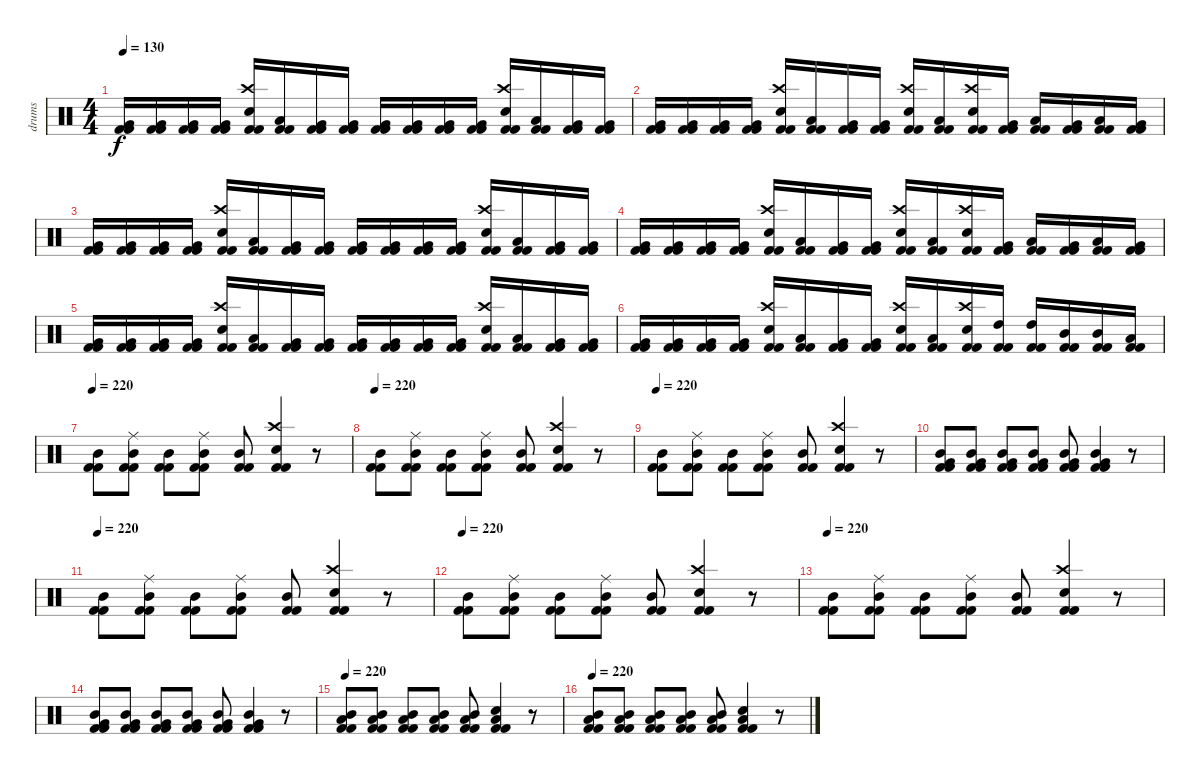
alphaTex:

\track ("drums" "drums") {instrument percussion}
\staff {score}
\articulation defaults
\ts (4 4)
\tempo 130
\clef neutral
\ks c
("Very Low Tom (hit)" "Kick (hit) 2" "Kick (hit) 2").16{dy f} ("Very Low Tom (hit)" "Kick (hit) 2" "Kick (hit) 2").16 ("Very Low Tom (hit)" "Kick (hit) 2" "Kick (hit) 2").16 ("Very Low Tom (hit)" "Kick (hit) 2" "Kick (hit) 2").16 ("Crash high (hit)" "Electric Snare (hit)" "Kick (hit) 2" "Kick (hit) 2").16 ("Low Tom (hit)" "Kick (hit) 2" "Kick (hit) 2").16 ("Very Low Tom (hit)" "Kick (hit) 2" "Kick (hit) 2").16 ("Very Low Tom (hit)" "Kick (hit) 2" "Kick (hit) 2").16 ("Very Low Tom (hit)" "Kick (hit) 2" "Kick (hit) 2").16 ("Very Low Tom (hit)" "Kick (hit) 2" "Kick (hit) 2").16 ("Very Low Tom (hit)" "Kick (hit) 2" "Kick (hit) 2").16 ("Very Low Tom (hit)" "Kick (hit) 2" "Kick (hit) 2").16 ("Crash high (hit)" "Electric Snare (hit)" "Kick (hit) 2" "Kick (hit) 2").16 ("Low Tom (hit)" "Kick (hit) 2" "Kick (hit) 2").16 ("Very Low Tom (hit)" "Kick (hit) 2" "Kick (hit) 2").16 ("Very Low Tom (hit)" "Kick (hit) 2" "Kick (hit) 2").16 |
("Very Low Tom (hit)" "Kick (hit) 2" "Kick (hit) 2").16 ("Very Low Tom (hit)" "Kick (hit) 2" "Kick (hit) 2").16 ("Very Low Tom (hit)" "Kick (hit) 2" "Kick (hit) 2").16 ("Very Low Tom (hit)" "Kick (hit) 2" "Kick (hit) 2").16 ("Crash high (hit)" "Electric Snare (hit)" "Kick (hit) 2" "Kick (hit) 2").16 ("Low Tom (hit)" "Kick (hit) 2" "Kick (hit) 2").16 ("Very Low Tom (hit)" "Kick (hit) 2" "Kick (hit) 2").16 ("Very Low Tom (hit)" "Kick (hit) 2" "Kick (hit) 2").16 ("Crash high (hit)" "Electric Snare (hit)" "Kick (hit) 2" "Kick (hit) 2").16 ("Low Tom (hit)" "Kick (hit) 2" "Kick (hit) 2").16 ("Crash high (hit)" "Electric Snare (hit)" "Kick (hit) 2" "Kick (hit) 2").16 ("Very Low Tom (hit)" "Kick (hit) 2" "Kick (hit) 2").16 ("Low Tom (hit)" "Kick (hit) 2" "Kick (hit) 2").16 ("Very Low Tom (hit)" "Kick (hit) 2" "Kick (hit) 2").16 ("Low Tom (hit)" "Kick (hit) 2" "Kick (hit) 2").16 ("Very Low Tom (hit)" "Kick (hit) 2" "Kick (hit) 2").16 |
("Very Low Tom (hit)" "Kick (hit) 2" "Kick (hit) 2").16 ("Very Low Tom (hit)" "Kick (hit) 2" "Kick (hit) 2").16 ("Very Low Tom (hit)" "Kick (hit) 2" "Kick (hit) 2").16 ("Very Low Tom (hit)" "Kick (hit) 2" "Kick (hit) 2").16 ("Crash high (hit)" "Electric Snare (hit)" "Kick (hit) 2" "Kick (hit) 2").16 ("Low Tom (hit)" "Kick (hit) 2" "Kick (hit) 2").16 ("Very Low Tom (hit)" "Kick (hit) 2" "Kick (hit) 2").16 ("Very Low Tom (hit)" "Kick (hit) 2" "Kick (hit) 2").16 ("Very Low Tom (hit)" "Kick (hit) 2" "Kick (hit) 2").16 ("Very Low Tom (hit)" "Kick (hit) 2" "Kick (hit) 2").16 ("Very Low Tom (hit)" "Kick (hit) 2" "Kick (hit) 2").16 ("Very Low Tom (hit)" "Kick (hit) 2" "Kick (hit) 2").16 ("Crash high (hit)" "Electric Snare (hit)" "Kick (hit) 2" "Kick (hit) 2").16 ("Low Tom (hit)" "Kick (hit) 2" "Kick (hit) 2").16 ("Very Low Tom (hit)" "Kick (hit) 2" "Kick (hit) 2").16 ("Very Low Tom (hit)" "Kick (hit) 2" "Kick (hit) 2").16 |
("Very Low Tom (hit)" "Kick (hit) 2" "Kick (hit) 2").16 ("Very Low Tom (hit)" "Kick (hit) 2" "Kick (hit) 2").16 ("Very Low Tom (hit)" "Kick (hit) 2" "Kick (hit) 2").16 ("Very Low Tom (hit)" "Kick (hit) 2" "Kick (hit) 2").16 ("Crash high (hit)" "Electric Snare (hit)" "Kick (hit) 2" "Kick (hit) 2").16 ("Low Tom (hit)" "Kick (hit) 2" "Kick (hit) 2").16 ("Very Low Tom (hit)" "Kick (hit) 2" "Kick (hit) 2").16 ("Very Low Tom (hit)" "Kick (hit) 2" "Kick (hit) 2").16 ("Crash high (hit)" "Electric Snare (hit)" "Kick (hit) 2" "Kick (hit) 2").16 ("Low Tom (hit)" "Kick (hit) 2" "Kick (hit) 2").16 ("Crash high (hit)" "Electric Snare (hit)" "Kick (hit) 2" "Kick (hit) 2").16 ("Very Low Tom (hit)" "Kick (hit) 2" "Kick (hit) 2").16 ("Low Tom (hit)" "Kick (hit) 2" "Kick (hit) 2").16 ("Very Low Tom (hit)" "Kick (hit) 2" "Kick (hit) 2").16 ("Low Tom (hit)" "Kick (hit) 2" "Kick (hit) 2").16 ("Very Low Tom (hit)" "Kick (hit) 2" "Kick (hit) 2").16 |
("Very Low Tom (hit)" "Kick (hit) 2" "Kick (hit) 2").16 ("Very Low Tom (hit)" "Kick (hit) 2" "Kick (hit) 2").16 ("Very Low Tom (hit)" "Kick (hit) 2" "Kick (hit) 2").16 ("Very Low Tom (hit)" "Kick (hit) 2" "Kick (hit) 2").16 ("Crash high (hit)" "Electric Snare (hit)" "Kick (hit) 2" "Kick (hit) 2").16 ("Low Tom (hit)" "Kick (hit) 2" "Kick (hit) 2").16 ("Very Low Tom (hit)" "Kick (hit) 2" "Kick (hit) 2").16 ("Very Low Tom (hit)" "Kick (hit) 2" "Kick (hit) 2").16 ("Very Low Tom (hit)" "Kick (hit) 2" "Kick (hit) 2").16 ("Very Low Tom (hit)" "Kick (hit) 2" "Kick (hit) 2").16 ("Very Low Tom (hit)" "Kick (hit) 2" "Kick (hit) 2").16 ("Very Low Tom (hit)" "Kick (hit) 2" "Kick (hit) 2").16 ("Crash high (hit)" "Electric Snare (hit)" "Kick (hit) 2" "Kick (hit) 2").16 ("Low Tom (hit)" "Kick (hit) 2" "Kick (hit) 2").16 ("Very Low Tom (hit)" "Kick (hit) 2" "Kick (hit) 2").16 ("Very Low Tom (hit)" "Kick (hit) 2" "Kick (hit) 2").16 |
("Very Low Tom (hit)" "Kick (hit) 2" "Kick (hit) 2").16 ("Very Low Tom (hit)" "Kick (hit) 2" "Kick (hit) 2").16 ("Very Low Tom (hit)" "Kick (hit) 2" "Kick (hit) 2").16 ("Very Low Tom (hit)" "Kick (hit) 2" "Kick (hit) 2").16 ("Crash high (hit)" "Electric Snare (hit)" "Kick (hit) 2" "Kick (hit) 2").16 ("Low Tom (hit)" "Kick (hit) 2" "Kick (hit) 2").16 ("Very Low Tom (hit)" "Kick (hit) 2" "Kick (hit) 2").16 ("Very Low Tom (hit)" "Kick (hit) 2" "Kick (hit) 2").16 ("Crash high (hit)" "Electric Snare (hit)" "Kick (hit) 2" "Kick (hit) 2").16 ("Low Tom (hit)" "Kick (hit) 2" "Kick (hit) 2").16 ("Crash high (hit)" "Electric Snare (hit)" "Kick (hit) 2" "Kick (hit) 2").16 ("High Tom (hit)" "Kick (hit) 2" "Kick (hit) 2").16 ("High Tom (hit)" "Kick (hit) 2" "Kick (hit) 2").16 ("Mid Tom (hit)" "Kick (hit) 2" "Kick (hit) 2").16 ("Mid Tom (hit)" "Kick (hit) 2" "Kick (hit) 2").16 ("Low Tom (hit)" "Kick (hit) 2" "Kick (hit) 2").16 |
\tempo 220
("Mid Tom (hit)" "Kick (hit) 2" "Kick (hit) 2").8 ("Ride (middle)" "Mid Tom (hit)" "Kick (hit) 2" "Kick (hit) 2").8 ("Mid Tom (hit)" "Kick (hit) 2" "Kick (hit) 2").8 ("Ride (middle)" "Mid Tom (hit)" "Kick (hit) 2" "Kick (hit) 2").8 ("Mid Tom (hit)" "Kick (hit) 2" "Kick (hit) 2").8 ("Crash high (hit)" "Electric Snare (hit)" "Kick (hit) 2" "Kick (hit) 2").4 r.8 |
\tempo 220
("Mid Tom (hit)" "Kick (hit) 2" "Kick (hit) 2").8 ("Ride (middle)" "Mid Tom (hit)" "Kick (hit) 2" "Kick (hit) 2").8 ("Mid Tom (hit)" "Kick (hit) 2" "Kick (hit) 2").8 ("Ride (middle)" "Mid Tom (hit)" "Kick (hit) 2" "Kick (hit) 2").8 ("Mid Tom (hit)" "Kick (hit) 2" "Kick (hit) 2").8 ("Crash high (hit)" "Electric Snare (hit)" "Kick (hit) 2" "Kick (hit) 2").4 r.8 |
\tempo 220
("Mid Tom (hit)" "Kick (hit) 2" "Kick (hit) 2").8 ("Ride (middle)" "Mid Tom (hit)" "Kick (hit) 2" "Kick (hit) 2").8 ("Mid Tom (hit)" "Kick (hit) 2" "Kick (hit) 2").8 ("Ride (middle)" "Mid Tom (hit)" "Kick (hit) 2" "Kick (hit) 2").8 ("Mid Tom (hit)" "Kick (hit) 2" "Kick (hit) 2").8 ("Crash high (hit)" "Electric Snare (hit)" "Kick (hit) 2" "Kick (hit) 2").4 r.8 |
("Mid Tom (hit)" "Very Low Tom (hit)" "Kick (hit) 2" "Kick (hit) 2").8 ("Mid Tom (hit)" "Very Low Tom (hit)" "Kick (hit) 2" "Kick (hit) 2").8 ("Mid Tom (hit)" "Very Low Tom (hit)" "Kick (hit) 2" "Kick (hit) 2").8 ("Mid Tom (hit)" "Very Low Tom (hit)" "Kick (hit) 2" "Kick (hit) 2").8 ("Mid Tom (hit)" "Very Low Tom (hit)" "Kick (hit) 2" "Kick (hit) 2").8 ("Mid Tom (hit)" "Very Low Tom (hit)" "Kick (hit) 2" "Kick (hit) 2").4 r.8 |
\tempo 220
("Mid Tom (hit)" "Kick (hit) 2" "Kick (hit) 2").8 ("Ride (middle)" "Mid Tom (hit)" "Kick (hit) 2" "Kick (hit) 2").8 ("Mid Tom (hit)" "Kick (hit) 2" "Kick (hit) 2").8 ("Ride (middle)" "Mid Tom (hit)" "Kick (hit) 2" "Kick (hit) 2").8 ("Mid Tom (hit)" "Kick (hit) 2" "Kick (hit) 2").8 ("Crash high (hit)" "Electric Snare (hit)" "Kick (hit) 2" "Kick (hit) 2").4 r.8 |
\tempo 220
("Mid Tom (hit)" "Kick (hit) 2" "Kick (hit) 2").8 ("Ride (middle)" "Mid Tom (hit)" "Kick (hit) 2" "Kick (hit) 2").8 ("Mid Tom (hit)" "Kick (hit) 2" "Kick (hit) 2").8 ("Ride (middle)" "Mid Tom (hit)" "Kick (hit) 2" "Kick (hit) 2").8 ("Mid Tom (hit)" "Kick (hit) 2" "Kick (hit) 2").8 ("Crash high (hit)" "Electric Snare (hit)" "Kick (hit) 2" "Kick (hit) 2").4 r.8 |
\tempo 220
("Mid Tom (hit)" "Kick (hit) 2" "Kick (hit) 2").8 ("Ride (middle)" "Mid Tom (hit)" "Kick (hit) 2" "Kick (hit) 2").8 ("Mid Tom (hit)" "Kick (hit) 2" "Kick (hit) 2").8 ("Ride (middle)" "Mid Tom (hit)" "Kick (hit) 2" "Kick (hit) 2").8 ("Mid Tom (hit)" "Kick (hit) 2" "Kick (hit) 2").8 ("Crash high (hit)" "Electric Snare (hit)" "Kick (hit) 2" "Kick (hit) 2").4 r.8 |
("Mid Tom (hit)" "Very Low Tom (hit)" "Kick (hit) 2" "Kick (hit) 2").8 ("Mid Tom (hit)" "Very Low Tom (hit)" "Kick (hit) 2" "Kick (hit) 2").8 ("Mid Tom (hit)" "Very Low Tom (hit)" "Kick (hit) 2" "Kick (hit) 2").8 ("Mid Tom (hit)" "Very Low Tom (hit)" "Kick (hit) 2" "Kick (hit) 2").8 ("Mid Tom (hit)" "Very Low Tom (hit)" "Kick (hit) 2" "Kick (hit) 2").8 ("Mid Tom (hit)" "Very Low Tom (hit)" "Kick (hit) 2" "Kick (hit) 2").4 r.8 |
\tempo 220
("Low Tom (hit)" "Mid Tom (hit)" "Kick (hit) 2" "Kick (hit) 2").8 ("Low Tom (hit)" "Mid Tom (hit)" "Kick (hit) 2" "Kick (hit) 2").8 ("Low Tom (hit)" "Mid Tom (hit)" "Kick (hit) 2" "Kick (hit) 2").8 ("Low Tom (hit)" "Mid Tom (hit)" "Kick (hit) 2" "Kick (hit) 2").8 ("Low Tom (hit)" "Mid Tom (hit)" "Kick (hit) 2" "Kick (hit) 2").8 ("Low Tom (hit)" "Electric Snare (hit)" "Kick (hit) 2" "Kick (hit) 2").4 r.8 |
\tempo 220
("Low Tom (hit)" "Mid Tom (hit)" "Kick (hit) 2" "Kick (hit) 2").8 ("Low Tom (hit)" "Mid Tom (hit)" "Kick (hit) 2" "Kick (hit) 2").8 ("Low Tom (hit)" "Mid Tom (hit)" "Kick (hit) 2" "Kick (hit) 2").8 ("Low Tom (hit)" "Mid Tom (hit)" "Kick (hit) 2" "Kick (hit) 2").8 ("Low Tom (hit)" "Mid Tom (hit)" "Kick (hit) 2" "Kick (hit) 2").8 ("Low Tom (hit)" "Electric Snare (hit)" "Kick (hit) 2" "Kick (hit) 2").4 r.8
